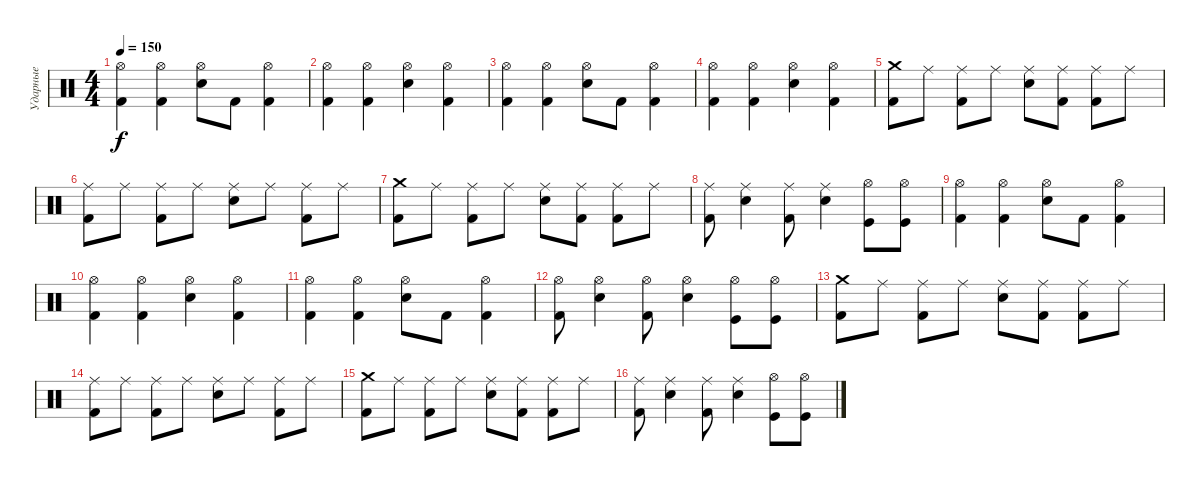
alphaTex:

\track ("Ударные" "Ударные") {instrument percussion}
\staff {score}
\articulation defaults
\ts (4 4)
\tempo 150
\clef neutral
\ks c
("Hi-Hat (open)" "Kick (hit) 2").4{dy f} ("Hi-Hat (open)" "Kick (hit) 2").4 ("Hi-Hat (open)" "Snare (hit) 2").8 "Kick (hit) 2".8 ("Hi-Hat (open)" "Kick (hit) 2").4 |
("Hi-Hat (open)" "Kick (hit) 2").4 ("Hi-Hat (open)" "Kick (hit) 2").4 ("Hi-Hat (open)" "Snare (hit) 2").4 ("Hi-Hat (open)" "Kick (hit) 2").4 |
("Hi-Hat (open)" "Kick (hit) 2").4 ("Hi-Hat (open)" "Kick (hit) 2").4 ("Hi-Hat (open)" "Snare (hit) 2").8 "Kick (hit) 2".8 ("Hi-Hat (open)" "Kick (hit) 2").4 |
("Hi-Hat (open)" "Kick (hit) 2").4 ("Hi-Hat (open)" "Kick (hit) 2").4 ("Hi-Hat (open)" "Snare (hit) 2").4 ("Hi-Hat (open)" "Kick (hit) 2").4 |
("Crash medium (hit)" "Kick (hit) 2").8 "Ride (middle)".8 ("Ride (middle)" "Kick (hit) 2").8 "Ride (middle)".8 ("Ride (middle)" "Snare (hit) 2").8 ("Ride (middle)" "Kick (hit) 2").8 ("Ride (middle)" "Kick (hit) 2").8 "Ride (middle)".8 |
("Ride (middle)" "Kick (hit) 2").8 "Ride (middle)".8 ("Ride (middle)" "Kick (hit) 2").8 "Ride (middle)".8 ("Ride (middle)" "Snare (hit) 2").8 "Ride (middle)".8 ("Ride (middle)" "Kick (hit) 2").8 "Ride (middle)".8 |
("Crash medium (hit)" "Kick (hit) 2").8 "Ride (middle)".8 ("Ride (middle)" "Kick (hit) 2").8 "Ride (middle)".8 ("Ride (middle)" "Snare (hit) 2").8 ("Ride (middle)" "Kick (hit) 2").8 ("Ride (middle)" "Kick (hit) 2").8 "Ride (middle)".8 |
("Ride (middle)" "Kick (hit) 2").8 ("Ride (middle)" "Snare (hit) 2").4 ("Ride (middle)" "Kick (hit) 2").8 ("Ride (middle)" "Snare (hit) 2").4 ("Hi-Hat (open)" "Kick (hit)").8 ("Hi-Hat (open)" "Kick (hit)").8 |
("Hi-Hat (open)" "Kick (hit) 2").4 ("Hi-Hat (open)" "Kick (hit) 2").4 ("Hi-Hat (open)" "Snare (hit) 2").8 "Kick (hit) 2".8 ("Hi-Hat (open)" "Kick (hit) 2").4 |
("Hi-Hat (open)" "Kick (hit) 2").4 ("Hi-Hat (open)" "Kick (hit) 2").4 ("Hi-Hat (open)" "Snare (hit) 2").4 ("Hi-Hat (open)" "Kick (hit) 2").4 |
("Hi-Hat (open)" "Kick (hit) 2").4 ("Hi-Hat (open)" "Kick (hit) 2").4 ("Hi-Hat (open)" "Snare (hit) 2").8 "Kick (hit) 2".8 ("Hi-Hat (open)" "Kick (hit) 2").4 |
("Hi-Hat (open)" "Kick (hit) 2").8 ("Hi-Hat (open)" "Snare (hit) 2").4 ("Hi-Hat (open)" "Kick (hit) 2").8 ("Hi-Hat (open)" "Snare (hit) 2").4 ("Hi-Hat (open)" "Kick (hit)").8 ("Hi-Hat (open)" "Kick (hit)").8 |
("Crash medium (hit)" "Kick (hit) 2").8 "Ride (middle)".8 ("Ride (middle)" "Kick (hit) 2").8 "Ride (middle)".8 ("Ride (middle)" "Snare (hit) 2").8 ("Ride (middle)" "Kick (hit) 2").8 ("Ride (middle)" "Kick (hit) 2").8 "Ride (middle)".8 |
("Ride (middle)" "Kick (hit) 2").8 "Ride (middle)".8 ("Ride (middle)" "Kick (hit) 2").8 "Ride (middle)".8 ("Ride (middle)" "Snare (hit) 2").8 "Ride (middle)".8 ("Ride (middle)" "Kick (hit) 2").8 "Ride (middle)".8 |
("Crash medium (hit)" "Kick (hit) 2").8 "Ride (middle)".8 ("Ride (middle)" "Kick (hit) 2").8 "Ride (middle)".8 ("Ride (middle)" "Snare (hit) 2").8 ("Ride (middle)" "Kick (hit) 2").8 ("Ride (middle)" "Kick (hit) 2").8 "Ride (middle)".8 |
("Ride (middle)" "Kick (hit) 2").8 ("Ride (middle)" "Snare (hit) 2").4 ("Ride (middle)" "Kick (hit) 2").8 ("Ride (middle)" "Snare (hit) 2").4 ("Hi-Hat (open)" "Kick (hit)").8 ("Hi-Hat (open)" "Kick (hit)").8
